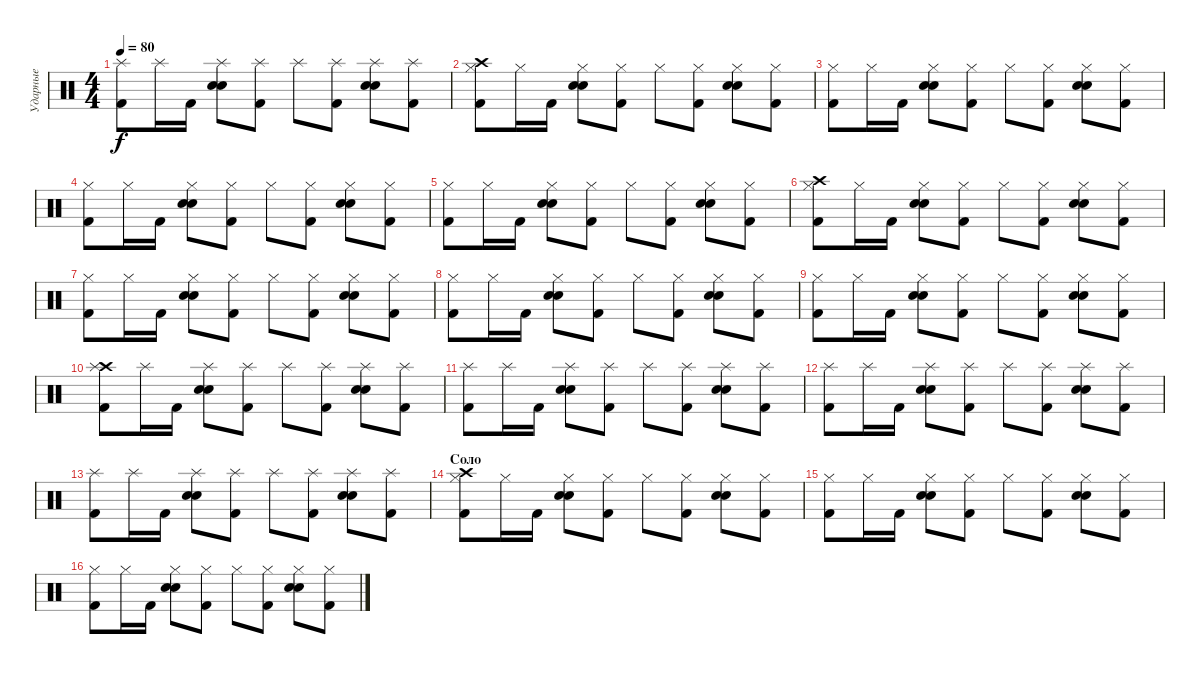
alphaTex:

\track ("Ударные" "Ударные") {instrument percussion}
\staff {score}
\articulation defaults
\ts (4 4)
\tempo 80
\clef neutral
\ks c
("Splash (hit)" "Kick (hit) 2").8{dy f} "Splash (hit)".16 "Kick (hit) 2".16 ("Splash (hit)" "Snare (hit) 2" "Snare (hit) 2").8 ("Splash (hit)" "Kick (hit) 2").8 "Splash (hit)".8 ("Splash (hit)" "Kick (hit) 2").8 ("Splash (hit)" "Snare (hit) 2" "Snare (hit) 2").8 ("Splash (hit)" "Kick (hit) 2").8 |
("Crash high (hit)" "Hi-Hat (closed)" "Kick (hit) 2").8 "Hi-Hat (closed)".16 "Kick (hit) 2".16 ("Hi-Hat (closed)" "Snare (hit) 2" "Snare (hit) 2").8 ("Hi-Hat (closed)" "Kick (hit) 2").8 "Hi-Hat (closed)".8 ("Hi-Hat (closed)" "Kick (hit) 2").8 ("Hi-Hat (closed)" "Snare (hit) 2" "Snare (hit) 2").8 ("Hi-Hat (closed)" "Kick (hit) 2").8 |
("Hi-Hat (closed)" "Kick (hit) 2").8 "Hi-Hat (closed)".16 "Kick (hit) 2".16 ("Hi-Hat (closed)" "Snare (hit) 2" "Snare (hit) 2").8 ("Hi-Hat (closed)" "Kick (hit) 2").8 "Hi-Hat (closed)".8 ("Hi-Hat (closed)" "Kick (hit) 2").8 ("Hi-Hat (closed)" "Snare (hit) 2" "Snare (hit) 2").8 ("Hi-Hat (closed)" "Kick (hit) 2").8 |
("Hi-Hat (closed)" "Kick (hit) 2").8 "Hi-Hat (closed)".16 "Kick (hit) 2".16 ("Hi-Hat (closed)" "Snare (hit) 2" "Snare (hit) 2").8 ("Hi-Hat (closed)" "Kick (hit) 2").8 "Hi-Hat (closed)".8 ("Hi-Hat (closed)" "Kick (hit) 2").8 ("Hi-Hat (closed)" "Snare (hit) 2" "Snare (hit) 2").8 ("Hi-Hat (closed)" "Kick (hit) 2").8 |
("Hi-Hat (closed)" "Kick (hit) 2").8 "Hi-Hat (closed)".16 "Kick (hit) 2".16 ("Hi-Hat (closed)" "Snare (hit) 2" "Snare (hit) 2").8 ("Hi-Hat (closed)" "Kick (hit) 2").8 "Hi-Hat (closed)".8 ("Hi-Hat (closed)" "Kick (hit) 2").8 ("Hi-Hat (closed)" "Snare (hit) 2" "Snare (hit) 2").8 ("Hi-Hat (closed)" "Kick (hit) 2").8 |
("Crash high (hit)" "Hi-Hat (closed)" "Kick (hit) 2").8 "Hi-Hat (closed)".16 "Kick (hit) 2".16 ("Hi-Hat (closed)" "Snare (hit) 2" "Snare (hit) 2").8 ("Hi-Hat (closed)" "Kick (hit) 2").8 "Hi-Hat (closed)".8 ("Hi-Hat (closed)" "Kick (hit) 2").8 ("Hi-Hat (closed)" "Snare (hit) 2" "Snare (hit) 2").8 ("Hi-Hat (closed)" "Kick (hit) 2").8 |
("Hi-Hat (closed)" "Kick (hit) 2").8 "Hi-Hat (closed)".16 "Kick (hit) 2".16 ("Hi-Hat (closed)" "Snare (hit) 2" "Snare (hit) 2").8 ("Hi-Hat (closed)" "Kick (hit) 2").8 "Hi-Hat (closed)".8 ("Hi-Hat (closed)" "Kick (hit) 2").8 ("Hi-Hat (closed)" "Snare (hit) 2" "Snare (hit) 2").8 ("Hi-Hat (closed)" "Kick (hit) 2").8 |
("Hi-Hat (closed)" "Kick (hit) 2").8 "Hi-Hat (closed)".16 "Kick (hit) 2".16 ("Hi-Hat (closed)" "Snare (hit) 2" "Snare (hit) 2").8 ("Hi-Hat (closed)" "Kick (hit) 2").8 "Hi-Hat (closed)".8 ("Hi-Hat (closed)" "Kick (hit) 2").8 ("Hi-Hat (closed)" "Snare (hit) 2" "Snare (hit) 2").8 ("Hi-Hat (closed)" "Kick (hit) 2").8 |
("Hi-Hat (closed)" "Kick (hit) 2").8 "Hi-Hat (closed)".16 "Kick (hit) 2".16 ("Hi-Hat (closed)" "Snare (hit) 2" "Snare (hit) 2").8 ("Hi-Hat (closed)" "Kick (hit) 2").8 "Hi-Hat (closed)".8 ("Hi-Hat (closed)" "Kick (hit) 2").8 ("Hi-Hat (closed)" "Snare (hit) 2" "Snare (hit) 2").8 ("Hi-Hat (closed)" "Kick (hit) 2").8 |
("Crash high (hit)" "Splash (hit)" "Kick (hit) 2").8 "Splash (hit)".16 "Kick (hit) 2".16 ("Splash (hit)" "Snare (hit) 2" "Snare (hit) 2").8 ("Splash (hit)" "Kick (hit) 2").8 "Splash (hit)".8 ("Splash (hit)" "Kick (hit) 2").8 ("Splash (hit)" "Snare (hit) 2" "Snare (hit) 2").8 ("Splash (hit)" "Kick (hit) 2").8 |
("Splash (hit)" "Kick (hit) 2").8 "Splash (hit)".16 "Kick (hit) 2".16 ("Splash (hit)" "Snare (hit) 2" "Snare (hit) 2").8 ("Splash (hit)" "Kick (hit) 2").8 "Splash (hit)".8 ("Splash (hit)" "Kick (hit) 2").8 ("Splash (hit)" "Snare (hit) 2" "Snare (hit) 2").8 ("Splash (hit)" "Kick (hit) 2").8 |
("Splash (hit)" "Kick (hit) 2").8 "Splash (hit)".16 "Kick (hit) 2".16 ("Splash (hit)" "Snare (hit) 2" "Snare (hit) 2").8 ("Splash (hit)" "Kick (hit) 2").8 "Splash (hit)".8 ("Splash (hit)" "Kick (hit) 2").8 ("Splash (hit)" "Snare (hit) 2" "Snare (hit) 2").8 ("Splash (hit)" "Kick (hit) 2").8 |
("Splash (hit)" "Kick (hit) 2").8 "Splash (hit)".16 "Kick (hit) 2".16 ("Splash (hit)" "Snare (hit) 2" "Snare (hit) 2").8 ("Splash (hit)" "Kick (hit) 2").8 "Splash (hit)".8 ("Splash (hit)" "Kick (hit) 2").8 ("Splash (hit)" "Snare (hit) 2" "Snare (hit) 2").8 ("Splash (hit)" "Kick (hit) 2").8 |
\section ("" "Соло ")
("Crash high (hit)" "Hi-Hat (closed)" "Kick (hit) 2").8 "Hi-Hat (closed)".16 "Kick (hit) 2".16 ("Hi-Hat (closed)" "Snare (hit) 2" "Snare (hit) 2").8 ("Hi-Hat (closed)" "Kick (hit) 2").8 "Hi-Hat (closed)".8 ("Hi-Hat (closed)" "Kick (hit) 2").8 ("Hi-Hat (closed)" "Snare (hit) 2" "Snare (hit) 2").8 ("Hi-Hat (closed)" "Kick (hit) 2").8 |
("Hi-Hat (closed)" "Kick (hit) 2").8 "Hi-Hat (closed)".16 "Kick (hit) 2".16 ("Hi-Hat (closed)" "Snare (hit) 2" "Snare (hit) 2").8 ("Hi-Hat (closed)" "Kick (hit) 2").8 "Hi-Hat (closed)".8 ("Hi-Hat (closed)" "Kick (hit) 2").8 ("Hi-Hat (closed)" "Snare (hit) 2" "Snare (hit) 2").8 ("Hi-Hat (closed)" "Kick (hit) 2").8 |
("Hi-Hat (closed)" "Kick (hit) 2").8 "Hi-Hat (closed)".16 "Kick (hit) 2".16 ("Hi-Hat (closed)" "Snare (hit) 2" "Snare (hit) 2").8 ("Hi-Hat (closed)" "Kick (hit) 2").8 "Hi-Hat (closed)".8 ("Hi-Hat (closed)" "Kick (hit) 2").8 ("Hi-Hat (closed)" "Snare (hit) 2" "Snare (hit) 2").8 ("Hi-Hat (closed)" "Kick (hit) 2").8
